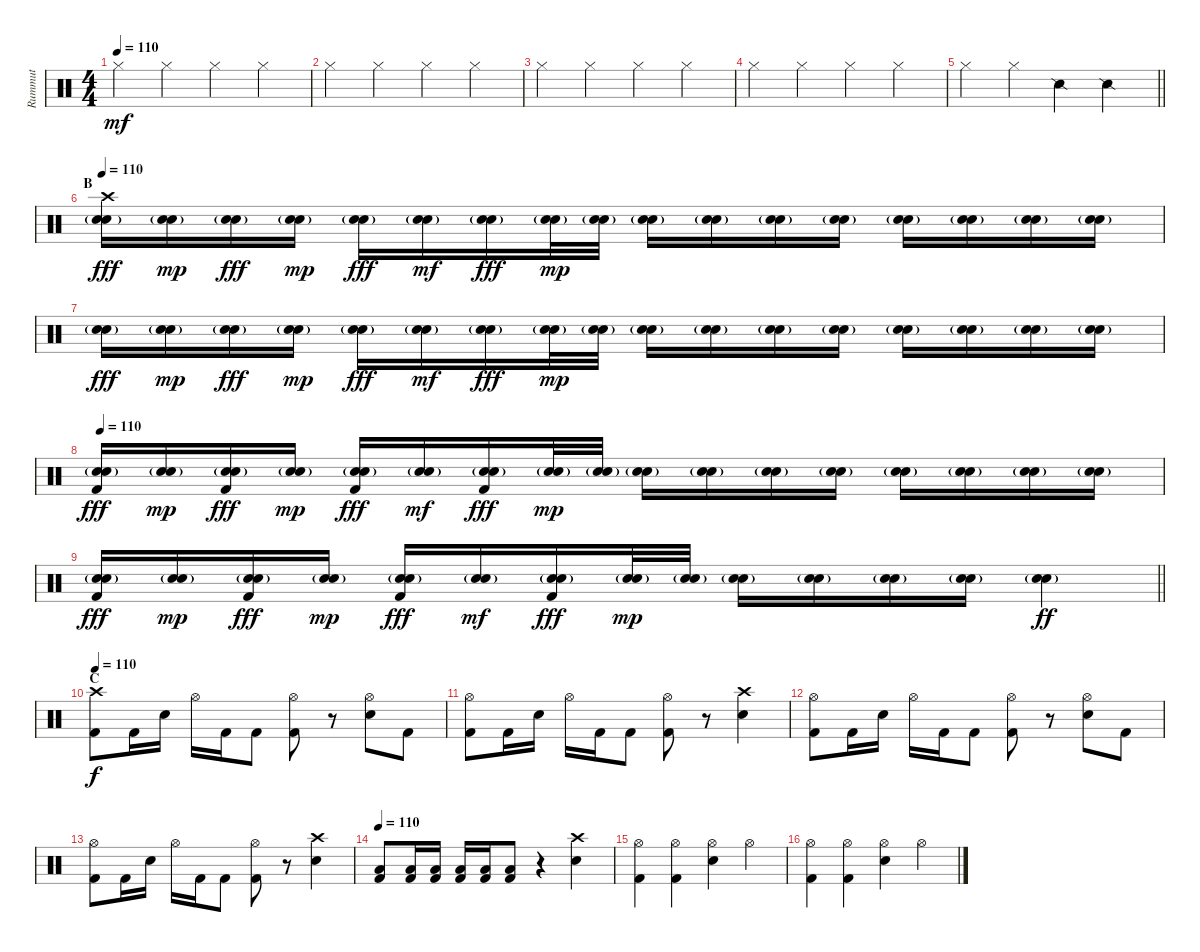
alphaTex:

\track ("Rummut" "Rummut") {instrument percussion}
\staff {score}
\articulation defaults
\ts (4 4)
\tempo 110
\clef neutral
\ks c "Hi-Hat (closed)".4{dy mf} "Hi-Hat (closed)".4 "Hi-Hat (closed)".4 "Hi-Hat (closed)".4
|
"Hi-Hat (closed)".4 "Hi-Hat (closed)".4 "Hi-Hat (closed)".4 "Hi-Hat (closed)".4 |
"Hi-Hat (closed)".4 "Hi-Hat (closed)".4 "Hi-Hat (closed)".4 "Hi-Hat (closed)".4 |
"Hi-Hat (closed)".4 "Hi-Hat (closed)".4 "Hi-Hat (closed)".4 "Hi-Hat (closed)".4 |
\barLineRight lightlight "Hi-Hat (closed)".4 "Hi-Hat (closed)".4 "Snare (side stick) 2".4 "Snare (side stick) 2".4
|
\section ("" "B")
\tempo 110
("Crash high (hit)" "Snare (hit) 2"{g} "Electric Snare (hit)").16{dy fff volume 8} ("Snare (hit) 2"{g} "Electric Snare (hit)").16{dy mp} ("Snare (hit) 2"{g} "Electric Snare (hit)").16{dy fff} ("Snare (hit) 2"{g} "Electric Snare (hit)").16{dy mp} ("Snare (hit) 2"{g} "Electric Snare (hit)").16{dy fff} ("Snare (hit) 2"{g} "Electric Snare (hit)").16{dy mf} ("Snare (hit) 2"{g} "Electric Snare (hit)").16{dy fff} ("Snare (hit) 2"{g} "Electric Snare (hit)").32{dy mp} ("Snare (hit) 2"{g} "Electric Snare (hit)").32 ("Snare (hit) 2"{g} "Electric Snare (hit)").16 ("Snare (hit) 2"{g} "Electric Snare (hit)").16 ("Snare (hit) 2"{g} "Electric Snare (hit)").16 ("Snare (hit) 2"{g} "Electric Snare (hit)").16 ("Snare (hit) 2"{g} "Electric Snare (hit)").16 ("Snare (hit) 2"{g} "Electric Snare (hit)").16 ("Snare (hit) 2"{g} "Electric Snare (hit)").16 ("Snare (hit) 2"{g} "Electric Snare (hit)").16 |
("Snare (hit) 2"{g} "Electric Snare (hit)").16{dy fff} ("Snare (hit) 2"{g} "Electric Snare (hit)").16{dy mp} ("Snare (hit) 2"{g} "Electric Snare (hit)").16{dy fff} ("Snare (hit) 2"{g} "Electric Snare (hit)").16{dy mp} ("Snare (hit) 2"{g} "Electric Snare (hit)").16{dy fff} ("Snare (hit) 2"{g} "Electric Snare (hit)").16{dy mf} ("Snare (hit) 2"{g} "Electric Snare (hit)").16{dy fff} ("Snare (hit) 2"{g} "Electric Snare (hit)").32{dy mp} ("Snare (hit) 2"{g} "Electric Snare (hit)").32 ("Snare (hit) 2"{g} "Electric Snare (hit)").16 ("Snare (hit) 2"{g} "Electric Snare (hit)").16 ("Snare (hit) 2"{g} "Electric Snare (hit)").16 ("Snare (hit) 2"{g} "Electric Snare (hit)").16 ("Snare (hit) 2"{g} "Electric Snare (hit)").16 ("Snare (hit) 2"{g} "Electric Snare (hit)").16 ("Snare (hit) 2"{g} "Electric Snare (hit)").16 ("Snare (hit) 2"{g} "Electric Snare (hit)").16 |
\tempo 110
("Kick (hit) 2" "Snare (hit) 2"{g} "Electric Snare (hit)").16{dy fff volume 12} ("Snare (hit) 2"{g} "Electric Snare (hit)").16{dy mp} ("Kick (hit) 2" "Snare (hit) 2"{g} "Electric Snare (hit)").16{dy fff} ("Snare (hit) 2"{g} "Electric Snare (hit)").16{dy mp} ("Kick (hit) 2" "Snare (hit) 2"{g} "Electric Snare (hit)").16{dy fff} ("Snare (hit) 2"{g} "Electric Snare (hit)").16{dy mf} ("Kick (hit) 2" "Snare (hit) 2"{g} "Electric Snare (hit)").16{dy fff} ("Snare (hit) 2"{g} "Electric Snare (hit)").32{dy mp} ("Snare (hit) 2"{g} "Electric Snare (hit)").32 ("Snare (hit) 2"{g} "Electric Snare (hit)").16 ("Snare (hit) 2"{g} "Electric Snare (hit)").16 ("Snare (hit) 2"{g} "Electric Snare (hit)").16 ("Snare (hit) 2"{g} "Electric Snare (hit)").16 ("Snare (hit) 2"{g} "Electric Snare (hit)").16 ("Snare (hit) 2"{g} "Electric Snare (hit)").16 ("Snare (hit) 2"{g} "Electric Snare (hit)").16 ("Snare (hit) 2"{g} "Electric Snare (hit)").16 |
\barLineRight lightlight
("Kick (hit) 2" "Snare (hit) 2"{g} "Electric Snare (hit)").16{dy fff} ("Snare (hit) 2"{g} "Electric Snare (hit)").16{dy mp} ("Kick (hit) 2" "Snare (hit) 2"{g} "Electric Snare (hit)").16{dy fff} ("Snare (hit) 2"{g} "Electric Snare (hit)").16{dy mp} ("Kick (hit) 2" "Snare (hit) 2"{g} "Electric Snare (hit)").16{dy fff} ("Snare (hit) 2"{g} "Electric Snare (hit)").16{dy mf} ("Kick (hit) 2" "Snare (hit) 2"{g} "Electric Snare (hit)").16{dy fff} ("Snare (hit) 2"{g} "Electric Snare (hit)").32{dy mp} ("Snare (hit) 2"{g} "Electric Snare (hit)").32 ("Snare (hit) 2"{g} "Electric Snare (hit)").16 ("Snare (hit) 2"{g} "Electric Snare (hit)").16 ("Snare (hit) 2"{g} "Electric Snare (hit)").16 ("Snare (hit) 2"{g} "Electric Snare (hit)").16 ("Snare (hit) 2"{g} "Electric Snare (hit)").4{dy ff} |
\section ("" "C")
\tempo 110
("Crash high (hit)" "Kick (hit) 2").8{dy f} "Kick (hit) 2".16 "Snare (hit) 2".16 "Hi-Hat (open)".16 "Kick (hit) 2".16 "Kick (hit) 2".8 ("Hi-Hat (open)" "Kick (hit) 2").8 r.8 ("Hi-Hat (open)" "Snare (hit) 2").8 "Kick (hit) 2".8 |
("Hi-Hat (open)" "Kick (hit) 2").8 "Kick (hit) 2".16 "Snare (hit) 2".16 "Hi-Hat (open)".16 "Kick (hit) 2".16 "Kick (hit) 2".8 ("Hi-Hat (open)" "Kick (hit) 2").8 r.8 ("Crash high (hit)" "Snare (hit) 2").4 |
("Hi-Hat (open)" "Kick (hit) 2").8 "Kick (hit) 2".16 "Snare (hit) 2".16 "Hi-Hat (open)".16 "Kick (hit) 2".16 "Kick (hit) 2".8 ("Hi-Hat (open)" "Kick (hit) 2").8 r.8 ("Hi-Hat (open)" "Snare (hit) 2").8 "Kick (hit) 2".8 |
("Hi-Hat (open)" "Kick (hit) 2").8 "Kick (hit) 2".16 "Snare (hit) 2".16 "Hi-Hat (open)".16 "Kick (hit) 2".16 "Kick (hit) 2".8 ("Hi-Hat (open)" "Kick (hit) 2").8 r.8 ("Crash high (hit)" "Snare (hit) 2").4 |
\tempo 110
("Low Floor Tom (hit)" "Kick (hit) 2").8 ("Low Floor Tom (hit)" "Kick (hit) 2").16 ("Low Floor Tom (hit)" "Kick (hit) 2").16 ("Low Floor Tom (hit)" "Kick (hit) 2").16 ("Low Floor Tom (hit)" "Kick (hit) 2").16 ("Low Floor Tom (hit)" "Kick (hit) 2").8 r.4 ("Crash high (hit)" "Snare (hit) 2").4 |
("Hi-Hat (open)" "Kick (hit) 2").4 ("Hi-Hat (open)" "Kick (hit) 2").4 ("Hi-Hat (open)" "Snare (hit) 2").4 "Hi-Hat (open)".4 |
("Hi-Hat (open)" "Kick (hit) 2").4 ("Hi-Hat (open)" "Kick (hit) 2").4 ("Hi-Hat (open)" "Snare (hit) 2").4 "Hi-Hat (open)".4
